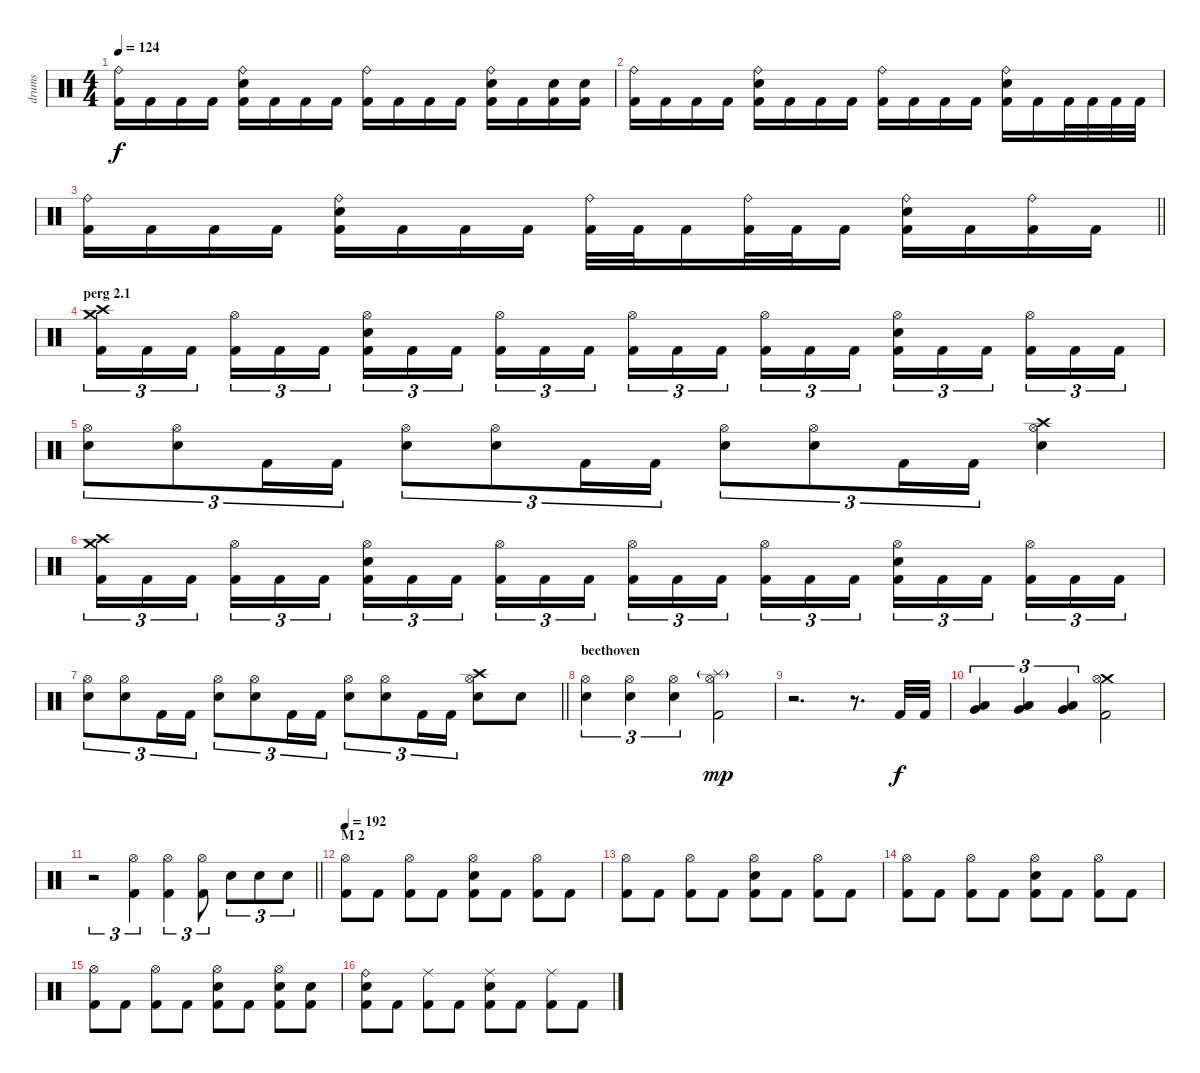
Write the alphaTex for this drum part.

\track ("drums" "drums") {instrument percussion}
\staff {score}
\articulation defaults
\ts (4 4)
\tempo 124
\clef neutral
\ks c
("Ride (bell)" "Kick (hit) 2").16{dy f} "Kick (hit) 2".16 "Kick (hit) 2".16 "Kick (hit) 2".16 ("Ride (bell)" "Electric Snare (hit)" "Kick (hit) 2").16 "Kick (hit) 2".16 "Kick (hit) 2".16 "Kick (hit) 2".16 ("Ride (bell)" "Kick (hit) 2").16 "Kick (hit) 2".16 "Kick (hit) 2".16 "Kick (hit) 2".16 ("Ride (bell)" "Electric Snare (hit)" "Kick (hit) 2").16 "Kick (hit) 2".16 ("Electric Snare (hit)" "Kick (hit) 2").16 ("Electric Snare (hit)" "Kick (hit) 2").16 |
("Ride (bell)" "Kick (hit) 2").16 "Kick (hit) 2".16 "Kick (hit) 2".16 "Kick (hit) 2".16 ("Ride (bell)" "Electric Snare (hit)" "Kick (hit) 2").16 "Kick (hit) 2".16 "Kick (hit) 2".16 "Kick (hit) 2".16 ("Ride (bell)" "Kick (hit) 2").16 "Kick (hit) 2".16 "Kick (hit) 2".16 "Kick (hit) 2".16 ("Ride (bell)" "Electric Snare (hit)" "Kick (hit) 2").16 "Kick (hit) 2".16 "Kick (hit) 2".32 "Kick (hit) 2".32 "Kick (hit) 2".32 "Kick (hit) 2".32 |
\barLineRight lightlight
("Ride (bell)" "Kick (hit) 2").16 "Kick (hit) 2".16 "Kick (hit) 2".16 "Kick (hit) 2".16 ("Ride (bell)" "Electric Snare (hit)" "Kick (hit) 2").16 "Kick (hit) 2".16 "Kick (hit) 2".16 "Kick (hit) 2".16 ("Ride (bell)" "Kick (hit) 2").32 "Kick (hit) 2".32 "Kick (hit) 2".16 ("Ride (bell)" "Kick (hit) 2").32 "Kick (hit) 2".32 "Kick (hit) 2".16 ("Ride (bell)" "Electric Snare (hit)" "Kick (hit) 2").16 "Kick (hit) 2".16 ("Ride (bell)" "Kick (hit) 2").16 "Kick (hit) 2".16 |
\section ("" "perg 2.1")
("Crash medium (hit)" "Crash high (hit)" "Kick (hit) 2").16{tu (3 2)} "Kick (hit) 2".16{tu (3 2)} "Kick (hit) 2".16{tu (3 2) beam splitsecondary} ("Hi-Hat (open)" "Kick (hit) 2").16{tu (3 2)} "Kick (hit) 2".16{tu (3 2)} "Kick (hit) 2".16{tu (3 2)} ("Hi-Hat (open)" "Electric Snare (hit)" "Kick (hit) 2").16{tu (3 2)} "Kick (hit) 2".16{tu (3 2)} "Kick (hit) 2".16{tu (3 2) beam splitsecondary} ("Hi-Hat (open)" "Kick (hit) 2").16{tu (3 2)} "Kick (hit) 2".16{tu (3 2)} "Kick (hit) 2".16{tu (3 2)} ("Hi-Hat (open)" "Kick (hit) 2").16{tu (3 2)} "Kick (hit) 2".16{tu (3 2)} "Kick (hit) 2".16{tu (3 2) beam splitsecondary} ("Hi-Hat (open)" "Kick (hit) 2").16{tu (3 2)} "Kick (hit) 2".16{tu (3 2)} "Kick (hit) 2".16{tu (3 2)} ("Hi-Hat (open)" "Electric Snare (hit)" "Kick (hit) 2").16{tu (3 2)} "Kick (hit) 2".16{tu (3 2)} "Kick (hit) 2".16{tu (3 2) beam splitsecondary} ("Hi-Hat (open)" "Kick (hit) 2").16{tu (3 2)} "Kick (hit) 2".16{tu (3 2)} "Kick (hit) 2".16{tu (3 2)} |
("Hi-Hat (open)" "Electric Snare (hit)").8{tu (3 2)} ("Hi-Hat (open)" "Electric Snare (hit)").8{tu (3 2)} "Kick (hit) 2".16{tu (3 2)} "Kick (hit) 2".16{tu (3 2)} ("Hi-Hat (open)" "Electric Snare (hit)").8{tu (3 2)} ("Hi-Hat (open)" "Electric Snare (hit)").8{tu (3 2)} "Kick (hit) 2".16{tu (3 2)} "Kick (hit) 2".16{tu (3 2)} ("Hi-Hat (open)" "Electric Snare (hit)").8{tu (3 2)} ("Hi-Hat (open)" "Electric Snare (hit)").8{tu (3 2)} "Kick (hit) 2".16{tu (3 2)} "Kick (hit) 2".16{tu (3 2)} ("Crash high (hit)" "Hi-Hat (open)" "Electric Snare (hit)").4 |
("Crash medium (hit)" "Crash high (hit)" "Kick (hit) 2").16{tu (3 2)} "Kick (hit) 2".16{tu (3 2)} "Kick (hit) 2".16{tu (3 2) beam splitsecondary} ("Hi-Hat (open)" "Kick (hit) 2").16{tu (3 2)} "Kick (hit) 2".16{tu (3 2)} "Kick (hit) 2".16{tu (3 2)} ("Hi-Hat (open)" "Electric Snare (hit)" "Kick (hit) 2").16{tu (3 2)} "Kick (hit) 2".16{tu (3 2)} "Kick (hit) 2".16{tu (3 2) beam splitsecondary} ("Hi-Hat (open)" "Kick (hit) 2").16{tu (3 2)} "Kick (hit) 2".16{tu (3 2)} "Kick (hit) 2".16{tu (3 2)} ("Hi-Hat (open)" "Kick (hit) 2").16{tu (3 2)} "Kick (hit) 2".16{tu (3 2)} "Kick (hit) 2".16{tu (3 2) beam splitsecondary} ("Hi-Hat (open)" "Kick (hit) 2").16{tu (3 2)} "Kick (hit) 2".16{tu (3 2)} "Kick (hit) 2".16{tu (3 2)} ("Hi-Hat (open)" "Electric Snare (hit)" "Kick (hit) 2").16{tu (3 2)} "Kick (hit) 2".16{tu (3 2)} "Kick (hit) 2".16{tu (3 2) beam splitsecondary} ("Hi-Hat (open)" "Kick (hit) 2").16{tu (3 2)} "Kick (hit) 2".16{tu (3 2)} "Kick (hit) 2".16{tu (3 2)} |
\barLineRight lightlight
("Hi-Hat (open)" "Electric Snare (hit)").8{tu (3 2)} ("Hi-Hat (open)" "Electric Snare (hit)").8{tu (3 2)} "Kick (hit) 2".16{tu (3 2)} "Kick (hit) 2".16{tu (3 2)} ("Hi-Hat (open)" "Electric Snare (hit)").8{tu (3 2)} ("Hi-Hat (open)" "Electric Snare (hit)").8{tu (3 2)} "Kick (hit) 2".16{tu (3 2)} "Kick (hit) 2".16{tu (3 2)} ("Hi-Hat (open)" "Electric Snare (hit)").8{tu (3 2)} ("Hi-Hat (open)" "Electric Snare (hit)").8{tu (3 2)} "Kick (hit) 2".16{tu (3 2)} "Kick (hit) 2".16{tu (3 2)} ("Crash high (hit)" "Hi-Hat (open)" "Electric Snare (hit)").8 "Electric Snare (hit)".8 |
\section ("" "beethoven")
("Hi-Hat (open)" "Electric Snare (hit)").4{tu (3 2)} ("Hi-Hat (open)" "Electric Snare (hit)").4{tu (3 2)} ("Hi-Hat (open)" "Electric Snare (hit)").4{tu (3 2)} ("Hi-Hat (open)" "Splash (hit)"{g} "Kick (hit) 2").2{dy mp} |
r.2{d} r.8{d} "Kick (hit) 2".32{dy f} "Kick (hit) 2".32 |
("Very Low Tom (hit)" "Low Floor Tom (hit)").4{tu (3 2)} ("Very Low Tom (hit)" "Low Floor Tom (hit)").4{tu (3 2)} ("Very Low Tom (hit)" "Low Floor Tom (hit)").4{tu (3 2)} ("Crash medium (hit)" "Hi-Hat (open)" "Kick (hit) 2").2 |
\barLineRight lightlight
r.2{tu (3 2)} ("Hi-Hat (open)" "Kick (hit) 2").4{tu (3 2)} ("Hi-Hat (open)" "Kick (hit) 2").4{tu (3 2)} ("Hi-Hat (open)" "Kick (hit) 2").8{tu (3 2)} "Electric Snare (hit)".8{tu (3 2)} "Electric Snare (hit)".8{tu (3 2)} "Electric Snare (hit)".8{tu (3 2)} |
\section ("" "M 2")
\tempo 192
("Hi-Hat (open)" "Kick (hit) 2").8 "Kick (hit) 2".8 ("Hi-Hat (open)" "Kick (hit) 2").8 "Kick (hit) 2".8 ("Hi-Hat (open)" "Electric Snare (hit)" "Kick (hit) 2").8 "Kick (hit) 2".8 ("Hi-Hat (open)" "Kick (hit) 2").8 "Kick (hit) 2".8 |
("Hi-Hat (open)" "Kick (hit) 2").8 "Kick (hit) 2".8 ("Hi-Hat (open)" "Kick (hit) 2").8 "Kick (hit) 2".8 ("Hi-Hat (open)" "Electric Snare (hit)" "Kick (hit) 2").8 "Kick (hit) 2".8 ("Hi-Hat (open)" "Kick (hit) 2").8 "Kick (hit) 2".8 |
("Hi-Hat (open)" "Kick (hit) 2").8 "Kick (hit) 2".8 ("Hi-Hat (open)" "Kick (hit) 2").8 "Kick (hit) 2".8 ("Hi-Hat (open)" "Electric Snare (hit)" "Kick (hit) 2").8 "Kick (hit) 2".8 ("Hi-Hat (open)" "Kick (hit) 2").8 "Kick (hit) 2".8 |
("Hi-Hat (open)" "Kick (hit) 2").8 "Kick (hit) 2".8 ("Hi-Hat (open)" "Kick (hit) 2").8 "Kick (hit) 2".8 ("Hi-Hat (open)" "Electric Snare (hit)" "Kick (hit) 2").8 "Kick (hit) 2".8 ("Hi-Hat (open)" "Electric Snare (hit)" "Kick (hit) 2").8 ("Electric Snare (hit)" "Kick (hit) 2").8 |
("Ride (bell)" "Electric Snare (hit)" "Kick (hit) 2").8 "Kick (hit) 2".8 ("Ride (middle)" "Kick (hit) 2").8 "Kick (hit) 2".8 ("Ride (middle)" "Electric Snare (hit)" "Kick (hit) 2").8 "Kick (hit) 2".8 ("Ride (middle)" "Kick (hit) 2").8 "Kick (hit) 2".8
